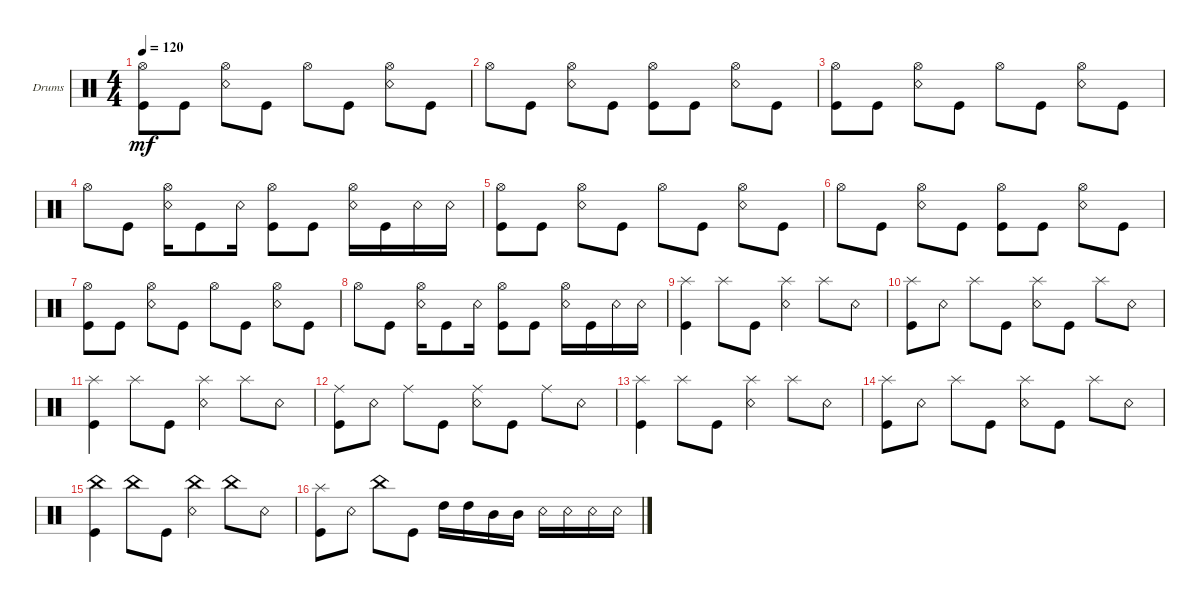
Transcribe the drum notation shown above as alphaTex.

\defaultSystemsLayout 4
\bracketExtendMode groupsimilarinstruments
\firstSystemTrackNameOrientation horizontal
\otherSystemsTrackNameOrientation horizontal
\track ("Roman Vorontcov" "Drums") {instrument percussion}
\staff {score}
\articulation defaults
\ts (4 4)
\tempo 120
\clef neutral
\ks c
("Kick (hit)" "Hi-Hat (open)").8{dy mf} "Kick (hit)".8 ("Snare (rim shot)" "Hi-Hat (open)").8 "Kick (hit)".8 "Hi-Hat (open)".8 "Kick (hit)".8 ("Snare (rim shot)" "Hi-Hat (open)").8 "Kick (hit)".8 |
"Hi-Hat (open)".8 "Kick (hit)".8 ("Snare (rim shot)" "Hi-Hat (open)").8 "Kick (hit)".8 ("Kick (hit)" "Hi-Hat (open)").8 "Kick (hit)".8 ("Snare (rim shot)" "Hi-Hat (open)").8 "Kick (hit)".8 |
("Kick (hit)" "Hi-Hat (open)").8 "Kick (hit)".8 ("Snare (rim shot)" "Hi-Hat (open)").8 "Kick (hit)".8 "Hi-Hat (open)".8 "Kick (hit)".8 ("Snare (rim shot)" "Hi-Hat (open)").8 "Kick (hit)".8 |
"Hi-Hat (open)".8 "Kick (hit)".8 ("Snare (rim shot)" "Hi-Hat (open)").16 "Kick (hit)".8 "Snare (rim shot)".16 ("Kick (hit)" "Hi-Hat (open)").8 "Kick (hit)".8 ("Snare (rim shot)" "Hi-Hat (open)").16 "Kick (hit)".16 "Snare (rim shot)".16 "Snare (rim shot)".16 |
("Kick (hit)" "Hi-Hat (open)").8 "Kick (hit)".8 ("Snare (rim shot)" "Hi-Hat (open)").8 "Kick (hit)".8 "Hi-Hat (open)".8 "Kick (hit)".8 ("Snare (rim shot)" "Hi-Hat (open)").8 "Kick (hit)".8 |
"Hi-Hat (open)".8 "Kick (hit)".8 ("Snare (rim shot)" "Hi-Hat (open)").8 "Kick (hit)".8 ("Kick (hit)" "Hi-Hat (open)").8 "Kick (hit)".8 ("Snare (rim shot)" "Hi-Hat (open)").8 "Kick (hit)".8 |
("Kick (hit)" "Hi-Hat (open)").8 "Kick (hit)".8 ("Snare (rim shot)" "Hi-Hat (open)").8 "Kick (hit)".8 "Hi-Hat (open)".8 "Kick (hit)".8 ("Snare (rim shot)" "Hi-Hat (open)").8 "Kick (hit)".8 |
"Hi-Hat (open)".8 "Kick (hit)".8 ("Snare (rim shot)" "Hi-Hat (open)").16 "Kick (hit)".8 "Snare (rim shot)".16 ("Kick (hit)" "Hi-Hat (open)").8 "Kick (hit)".8 ("Snare (rim shot)" "Hi-Hat (open)").16 "Kick (hit)".16 "Snare (rim shot)".16 "Snare (rim shot)".16 |
("Kick (hit)" "Splash (hit)").4 "Splash (hit)".8 "Kick (hit)".8 ("Snare (rim shot)" "Splash (hit)").4 "Splash (hit)".8 "Snare (rim shot)".8 |
("Kick (hit)" "Splash (hit)").8 "Snare (rim shot)".8 "Splash (hit)".8 "Kick (hit)".8 ("Snare (rim shot)" "Splash (hit)").8 "Kick (hit)".8 "Splash (hit)".8 "Snare (rim shot)".8 |
("Kick (hit)" "Splash (hit)").4 "Splash (hit)".8 "Kick (hit)".8 ("Snare (rim shot)" "Splash (hit)").4 "Splash (hit)".8 "Snare (rim shot)".8 |
("Kick (hit)" "Ride (middle)").8 "Snare (rim shot)".8 "Ride (middle)".8 "Kick (hit)".8 ("Snare (rim shot)" "Ride (middle)").8 "Kick (hit)".8 "Ride (middle)".8 "Snare (rim shot)".8 |
("Kick (hit)" "Splash (hit)").4 "Splash (hit)".8 "Kick (hit)".8 ("Snare (rim shot)" "Splash (hit)").4 "Splash (hit)".8 "Snare (rim shot)".8 |
("Kick (hit)" "Splash (hit)").8 "Snare (rim shot)".8 "Splash (hit)".8 "Kick (hit)".8 ("Snare (rim shot)" "Splash (hit)").8 "Kick (hit)".8 "Splash (hit)".8 "Snare (rim shot)".8 |
("Kick (hit)" "China (hit)").4 "China (hit)".8 "Kick (hit)".8 ("Snare (rim shot)" "China (hit)").4 "China (hit)".8 "Snare (rim shot)".8 |
("Kick (hit)" "Splash (hit)").8 "Snare (rim shot)".8 "China (hit)".8 "Kick (hit)".8 "High Tom (hit)".16 "High Tom (hit)".16 "Mid Tom (hit)".16 "Mid Tom (hit)".16 "Snare (rim shot)".16 "Snare (rim shot)".16 "Snare (rim shot)".16 "Snare (rim shot)".16
